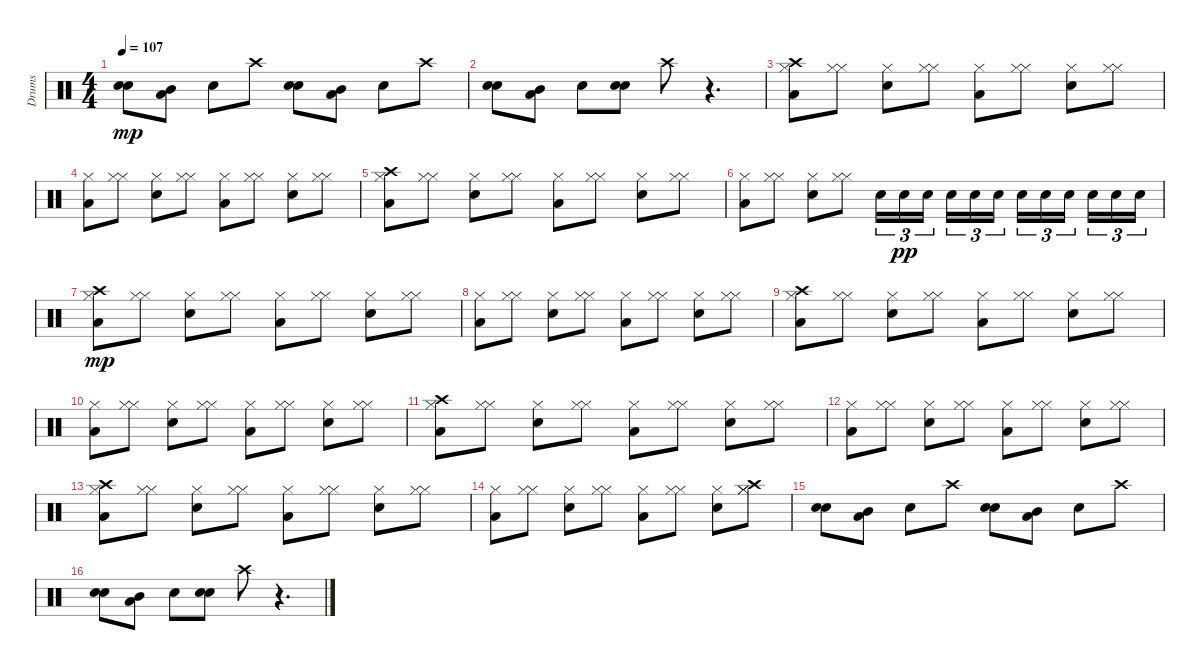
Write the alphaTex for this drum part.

\track ("Drums" "Drums") {instrument percussion}
\staff {score}
\articulation defaults
\ts (4 4)
\tempo 107
\clef neutral
\ks c
("Snare (hit) 2" "Snare (hit) 2").8{dy mp} ("Mid Tom (hit)" "Low Tom (hit)").8 "Snare (hit) 2".8 "Crash high (hit)".8 ("Snare (hit) 2" "Snare (hit) 2").8 ("Mid Tom (hit)" "Low Tom (hit)").8 "Snare (hit) 2".8 "Crash high (hit)".8 |
("Snare (hit) 2" "Snare (hit) 2").8 ("Mid Tom (hit)" "Low Tom (hit)").8 "Snare (hit) 2".8 ("Snare (hit) 2" "Snare (hit) 2").8 "Crash high (hit)".8 r.4{d} |
("Hi-Hat (closed)" "Crash high (hit)" "Low Tom (hit)").8 ("Hi-Hat (closed)" "Hi-Hat (closed)").8 ("Hi-Hat (closed)" "Snare (hit) 2").8 ("Hi-Hat (closed)" "Hi-Hat (closed)").8 ("Hi-Hat (closed)" "Low Tom (hit)").8 ("Hi-Hat (closed)" "Hi-Hat (closed)").8 ("Hi-Hat (closed)" "Snare (hit) 2").8 ("Hi-Hat (closed)" "Hi-Hat (closed)").8 |
("Hi-Hat (closed)" "Low Tom (hit)").8 ("Hi-Hat (closed)" "Hi-Hat (closed)").8 ("Hi-Hat (closed)" "Snare (hit) 2").8 ("Hi-Hat (closed)" "Hi-Hat (closed)").8 ("Hi-Hat (closed)" "Low Tom (hit)").8 ("Hi-Hat (closed)" "Hi-Hat (closed)").8 ("Hi-Hat (closed)" "Snare (hit) 2").8 ("Hi-Hat (closed)" "Hi-Hat (closed)").8 |
("Hi-Hat (closed)" "Crash high (hit)" "Low Tom (hit)").8 ("Hi-Hat (closed)" "Hi-Hat (closed)").8 ("Hi-Hat (closed)" "Snare (hit) 2").8 ("Hi-Hat (closed)" "Hi-Hat (closed)").8 ("Hi-Hat (closed)" "Low Tom (hit)").8 ("Hi-Hat (closed)" "Hi-Hat (closed)").8 ("Hi-Hat (closed)" "Snare (hit) 2").8 ("Hi-Hat (closed)" "Hi-Hat (closed)").8 |
("Hi-Hat (closed)" "Low Tom (hit)").8 ("Hi-Hat (closed)" "Hi-Hat (closed)").8 ("Hi-Hat (closed)" "Snare (hit) 2").8 ("Hi-Hat (closed)" "Hi-Hat (closed)").8 "Snare (hit) 2".16{tu (3 2)} "Snare (hit) 2".16{tu (3 2) dy pp} "Snare (hit) 2".16{tu (3 2) beam splitsecondary} "Snare (hit) 2".16{tu (3 2)} "Snare (hit) 2".16{tu (3 2)} "Snare (hit) 2".16{tu (3 2)} "Snare (hit) 2".16{tu (3 2)} "Snare (hit) 2".16{tu (3 2)} "Snare (hit) 2".16{tu (3 2) beam splitsecondary} "Snare (hit) 2".16{tu (3 2)} "Snare (hit) 2".16{tu (3 2)} "Snare (hit) 2".16{tu (3 2)} |
("Hi-Hat (closed)" "Crash high (hit)" "Low Tom (hit)").8{dy mp} ("Hi-Hat (closed)" "Hi-Hat (closed)").8 ("Hi-Hat (closed)" "Snare (hit) 2").8 ("Hi-Hat (closed)" "Hi-Hat (closed)").8 ("Hi-Hat (closed)" "Low Tom (hit)").8 ("Hi-Hat (closed)" "Hi-Hat (closed)").8 ("Hi-Hat (closed)" "Snare (hit) 2").8 ("Hi-Hat (closed)" "Hi-Hat (closed)").8 |
("Hi-Hat (closed)" "Low Tom (hit)").8 ("Hi-Hat (closed)" "Hi-Hat (closed)").8 ("Hi-Hat (closed)" "Snare (hit) 2").8 ("Hi-Hat (closed)" "Hi-Hat (closed)").8 ("Hi-Hat (closed)" "Low Tom (hit)").8 ("Hi-Hat (closed)" "Hi-Hat (closed)").8 ("Hi-Hat (closed)" "Snare (hit) 2").8 ("Hi-Hat (closed)" "Hi-Hat (closed)").8 |
("Hi-Hat (closed)" "Crash high (hit)" "Low Tom (hit)").8 ("Hi-Hat (closed)" "Hi-Hat (closed)").8 ("Hi-Hat (closed)" "Snare (hit) 2").8 ("Hi-Hat (closed)" "Hi-Hat (closed)").8 ("Hi-Hat (closed)" "Low Tom (hit)").8 ("Hi-Hat (closed)" "Hi-Hat (closed)").8 ("Hi-Hat (closed)" "Snare (hit) 2").8 ("Hi-Hat (closed)" "Hi-Hat (closed)").8 |
("Hi-Hat (closed)" "Low Tom (hit)").8 ("Hi-Hat (closed)" "Hi-Hat (closed)").8 ("Hi-Hat (closed)" "Snare (hit) 2").8 ("Hi-Hat (closed)" "Hi-Hat (closed)").8 ("Hi-Hat (closed)" "Low Tom (hit)").8 ("Hi-Hat (closed)" "Hi-Hat (closed)").8 ("Hi-Hat (closed)" "Snare (hit) 2").8 ("Hi-Hat (closed)" "Hi-Hat (closed)").8 |
("Hi-Hat (closed)" "Crash high (hit)" "Low Tom (hit)").8 ("Hi-Hat (closed)" "Hi-Hat (closed)").8 ("Hi-Hat (closed)" "Snare (hit) 2").8 ("Hi-Hat (closed)" "Hi-Hat (closed)").8 ("Hi-Hat (closed)" "Low Tom (hit)").8 ("Hi-Hat (closed)" "Hi-Hat (closed)").8 ("Hi-Hat (closed)" "Snare (hit) 2").8 ("Hi-Hat (closed)" "Hi-Hat (closed)").8 |
("Hi-Hat (closed)" "Low Tom (hit)").8 ("Hi-Hat (closed)" "Hi-Hat (closed)").8 ("Hi-Hat (closed)" "Snare (hit) 2").8 ("Hi-Hat (closed)" "Hi-Hat (closed)").8 ("Hi-Hat (closed)" "Low Tom (hit)").8 ("Hi-Hat (closed)" "Hi-Hat (closed)").8 ("Hi-Hat (closed)" "Snare (hit) 2").8 ("Hi-Hat (closed)" "Hi-Hat (closed)").8 |
("Hi-Hat (closed)" "Crash high (hit)" "Low Tom (hit)").8 ("Hi-Hat (closed)" "Hi-Hat (closed)").8 ("Hi-Hat (closed)" "Snare (hit) 2").8 ("Hi-Hat (closed)" "Hi-Hat (closed)").8 ("Hi-Hat (closed)" "Low Tom (hit)").8 ("Hi-Hat (closed)" "Hi-Hat (closed)").8 ("Hi-Hat (closed)" "Snare (hit) 2").8 ("Hi-Hat (closed)" "Hi-Hat (closed)").8 |
("Hi-Hat (closed)" "Low Tom (hit)").8 ("Hi-Hat (closed)" "Hi-Hat (closed)").8 ("Hi-Hat (closed)" "Snare (hit) 2").8 ("Hi-Hat (closed)" "Hi-Hat (closed)").8 ("Hi-Hat (closed)" "Low Tom (hit)").8 ("Hi-Hat (closed)" "Hi-Hat (closed)").8 ("Hi-Hat (closed)" "Snare (hit) 2").8 ("Crash high (hit)" "Hi-Hat (closed)" "Hi-Hat (closed)").8 |
("Snare (hit) 2" "Snare (hit) 2").8 ("Mid Tom (hit)" "Low Tom (hit)").8 "Snare (hit) 2".8 "Crash high (hit)".8 ("Snare (hit) 2" "Snare (hit) 2").8 ("Mid Tom (hit)" "Low Tom (hit)").8 "Snare (hit) 2".8 "Crash high (hit)".8 |
("Snare (hit) 2" "Snare (hit) 2").8 ("Mid Tom (hit)" "Low Tom (hit)").8 "Snare (hit) 2".8 ("Snare (hit) 2" "Snare (hit) 2").8 "Crash high (hit)".8 r.4{d}
